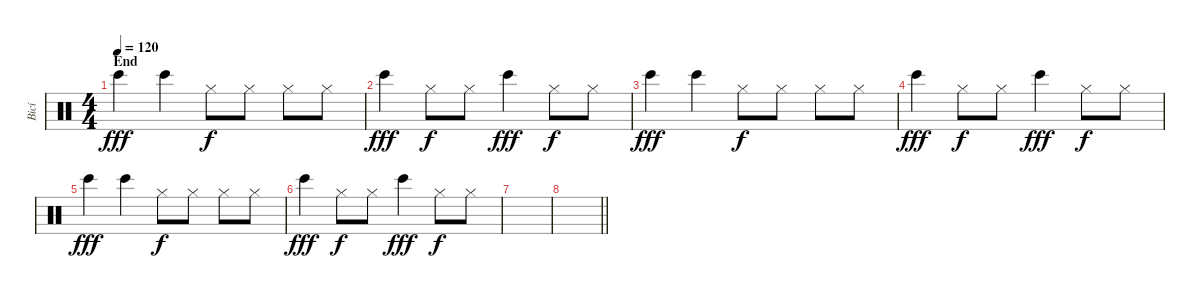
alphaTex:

\track ("Bicí" "Bicí") {instrument percussion}
\staff {score}
\articulation defaults
\ts (4 4)
\section ("" "End")
\tempo 120
\clef neutral
\ks c "Bongo High (hit)".4{dy fff} "Bongo High (hit)".4 "Hi-Hat (closed)".8{dy f} "Hi-Hat (closed)".8 "Hi-Hat (closed)".8 "Hi-Hat (closed)".8
|
"Bongo High (hit)".4{dy fff} "Hi-Hat (closed)".8{dy f} "Hi-Hat (closed)".8 "Bongo High (hit)".4{dy fff} "Hi-Hat (closed)".8{dy f} "Hi-Hat (closed)".8 |
"Bongo High (hit)".4{dy fff} "Bongo High (hit)".4 "Hi-Hat (closed)".8{dy f} "Hi-Hat (closed)".8 "Hi-Hat (closed)".8 "Hi-Hat (closed)".8 |
"Bongo High (hit)".4{dy fff} "Hi-Hat (closed)".8{dy f} "Hi-Hat (closed)".8 "Bongo High (hit)".4{dy fff} "Hi-Hat (closed)".8{dy f} "Hi-Hat (closed)".8 |
"Bongo High (hit)".4{dy fff} "Bongo High (hit)".4 "Hi-Hat (closed)".8{dy f} "Hi-Hat (closed)".8 "Hi-Hat (closed)".8 "Hi-Hat (closed)".8 |
"Bongo High (hit)".4{dy fff} "Hi-Hat (closed)".8{dy f} "Hi-Hat (closed)".8 "Bongo High (hit)".4{dy fff} "Hi-Hat (closed)".8{dy f} "Hi-Hat (closed)".8 |
|
\barLineRight lightlight
